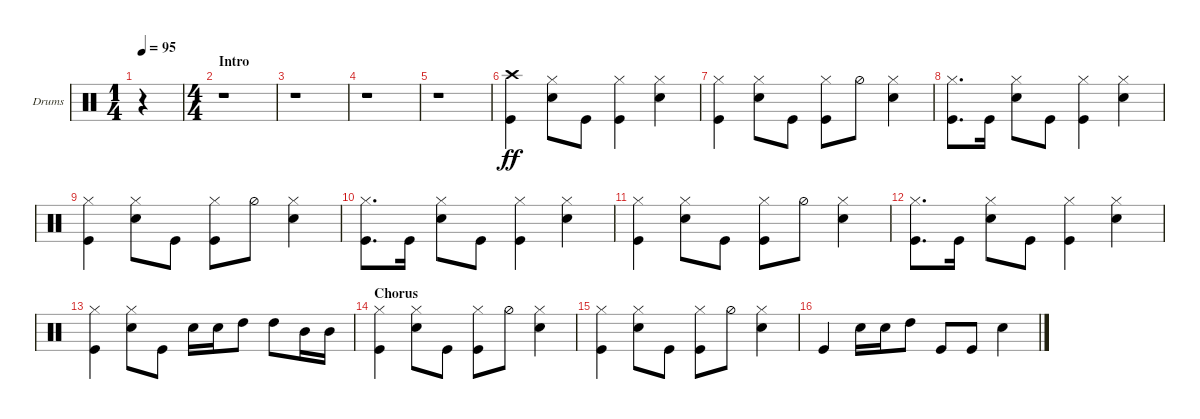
\defaultSystemsLayout 4
\bracketExtendMode groupsimilarinstruments
\firstSystemTrackNameOrientation horizontal
\otherSystemsTrackNameOrientation horizontal
\track ("Drums" "Drums") {instrument percussion}
\staff {score}
\articulation defaults
\ts (1 4)
\tempo 95
\clef neutral
\ks c
r.4{dy ff} |
\ts (4 4)
\section ("" "Intro")
r.1 |
r.1 |
r.1 |
r.1 |
("Kick (hit)" "Crash high (hit)").4 ("Hi-Hat (closed)" "Snare (hit) 2").8 "Kick (hit)".8 ("Kick (hit)" "Hi-Hat (closed)").4 ("Hi-Hat (closed)" "Snare (hit) 2").4 |
("Hi-Hat (closed)" "Kick (hit)").4 ("Hi-Hat (closed)" "Snare (hit) 2").8 "Kick (hit)".8 ("Kick (hit)" "Hi-Hat (closed)").8 "Hi-Hat (half)".8 ("Hi-Hat (closed)" "Snare (hit) 2").4 |
("Hi-Hat (closed)" "Kick (hit)").8{d} "Kick (hit)".16 ("Hi-Hat (closed)" "Snare (hit) 2").8 "Kick (hit)".8 ("Kick (hit)" "Hi-Hat (closed)").4 ("Hi-Hat (closed)" "Snare (hit) 2").4 |
("Hi-Hat (closed)" "Kick (hit)").4 ("Hi-Hat (closed)" "Snare (hit) 2").8 "Kick (hit)".8 ("Kick (hit)" "Hi-Hat (closed)").8 "Hi-Hat (half)".8 ("Hi-Hat (closed)" "Snare (hit) 2").4 |
("Hi-Hat (closed)" "Kick (hit)").8{d} "Kick (hit)".16 ("Hi-Hat (closed)" "Snare (hit) 2").8 "Kick (hit)".8 ("Kick (hit)" "Hi-Hat (closed)").4 ("Hi-Hat (closed)" "Snare (hit) 2").4 |
("Hi-Hat (closed)" "Kick (hit)").4 ("Hi-Hat (closed)" "Snare (hit) 2").8 "Kick (hit)".8 ("Kick (hit)" "Hi-Hat (closed)").8 "Hi-Hat (half)".8 ("Hi-Hat (closed)" "Snare (hit) 2").4 |
("Hi-Hat (closed)" "Kick (hit)").8{d} "Kick (hit)".16 ("Hi-Hat (closed)" "Snare (hit) 2").8 "Kick (hit)".8 ("Kick (hit)" "Hi-Hat (closed)").4 ("Hi-Hat (closed)" "Snare (hit) 2").4 |
("Hi-Hat (closed)" "Kick (hit)").4 ("Hi-Hat (closed)" "Snare (hit) 2").8 "Kick (hit)".8 "Snare (hit) 2".16 "Snare (hit) 2".16 "High Tom (hit)".8 "High Tom (hit)".8 "Mid Tom (hit)".16 "Mid Tom (hit)".16 |
\section ("" "Chorus")
("Hi-Hat (closed)" "Kick (hit)").4 ("Hi-Hat (closed)" "Snare (hit) 2").8 "Kick (hit)".8 ("Kick (hit)" "Hi-Hat (closed)").8 "Hi-Hat (half)".8 ("Hi-Hat (closed)" "Snare (hit) 2").4 |
("Hi-Hat (closed)" "Kick (hit)").4 ("Hi-Hat (closed)" "Snare (hit) 2").8 "Kick (hit)".8 ("Kick (hit)" "Hi-Hat (closed)").8 "Hi-Hat (half)".8 ("Hi-Hat (closed)" "Snare (hit) 2").4 |
"Kick (hit)".4 "Snare (hit) 2".16 "Snare (hit) 2".16 "High Tom (hit)".8 "Kick (hit)".8 "Kick (hit)".8 "Snare (hit) 2".4
